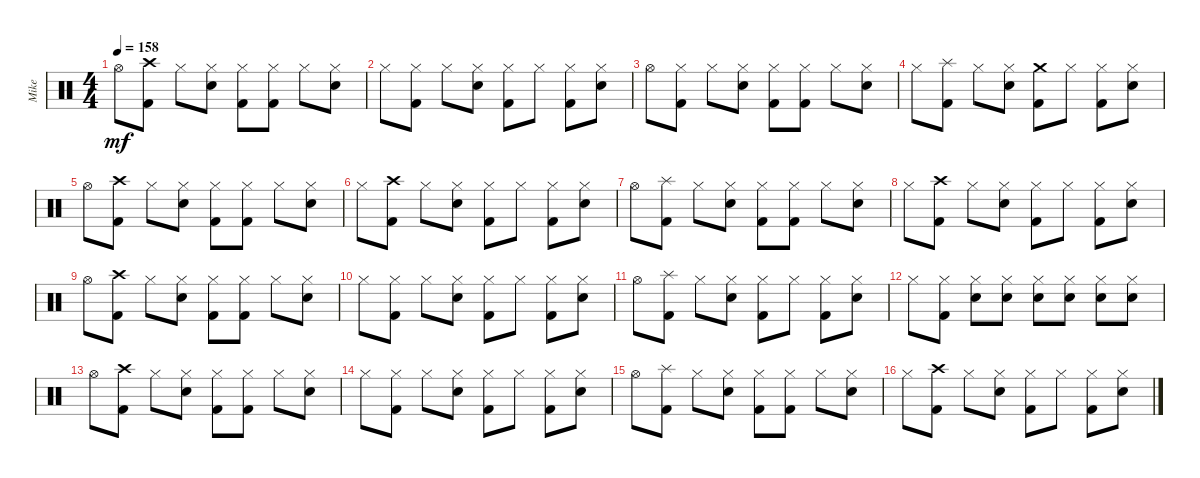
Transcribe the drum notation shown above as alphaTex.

\track ("Mike" "Mike") {instrument percussion}
\staff {score}
\articulation defaults
\ts (4 4)
\tempo 158
\clef neutral
\ks c "Hi-Hat (open)".8{dy mf}
("Crash high (hit)" "Kick (hit) 2").8 "Hi-Hat (closed)".8 ("Hi-Hat (closed)" "Electric Snare (hit)").8 ("Hi-Hat (closed)" "Kick (hit) 2").8 ("Hi-Hat (closed)" "Kick (hit) 2").8 "Hi-Hat (closed)".8 ("Hi-Hat (closed)" "Electric Snare (hit)").8 |
"Hi-Hat (closed)".8 ("Hi-Hat (closed)" "Kick (hit) 2").8 "Hi-Hat (closed)".8 ("Hi-Hat (closed)" "Electric Snare (hit)").8 ("Hi-Hat (closed)" "Kick (hit) 2").8 "Hi-Hat (closed)".8 ("Hi-Hat (closed)" "Kick (hit) 2").8 ("Hi-Hat (closed)" "Electric Snare (hit)").8 |
"Hi-Hat (open)".8 ("Hi-Hat (closed)" "Kick (hit) 2").8 "Hi-Hat (closed)".8 ("Hi-Hat (closed)" "Electric Snare (hit)").8 ("Hi-Hat (closed)" "Kick (hit) 2").8 ("Hi-Hat (closed)" "Kick (hit) 2").8 "Hi-Hat (closed)".8 ("Hi-Hat (closed)" "Electric Snare (hit)").8 |
"Hi-Hat (closed)".8 ("Splash (hit)" "Kick (hit) 2").8 "Hi-Hat (closed)".8 ("Hi-Hat (closed)" "Electric Snare (hit)").8 ("Crash medium (hit)" "Kick (hit) 2").8 "Hi-Hat (closed)".8 ("Hi-Hat (closed)" "Kick (hit) 2").8 ("Hi-Hat (closed)" "Electric Snare (hit)").8 |
"Hi-Hat (open)".8 ("Crash high (hit)" "Kick (hit) 2").8 "Hi-Hat (closed)".8 ("Hi-Hat (closed)" "Electric Snare (hit)").8 ("Hi-Hat (closed)" "Kick (hit) 2").8 ("Hi-Hat (closed)" "Kick (hit) 2").8 "Hi-Hat (closed)".8 ("Hi-Hat (closed)" "Electric Snare (hit)").8 |
"Hi-Hat (closed)".8 ("Crash high (hit)" "Kick (hit) 2").8 "Hi-Hat (closed)".8 ("Hi-Hat (closed)" "Electric Snare (hit)").8 ("Hi-Hat (closed)" "Kick (hit) 2").8 "Hi-Hat (closed)".8 ("Hi-Hat (closed)" "Kick (hit) 2").8 ("Hi-Hat (closed)" "Electric Snare (hit)").8 |
"Hi-Hat (open)".8 ("Splash (hit)" "Kick (hit) 2").8 "Hi-Hat (closed)".8 ("Hi-Hat (closed)" "Electric Snare (hit)").8 ("Hi-Hat (closed)" "Kick (hit) 2").8 ("Hi-Hat (closed)" "Kick (hit) 2").8 "Hi-Hat (closed)".8 ("Hi-Hat (closed)" "Electric Snare (hit)").8 |
"Hi-Hat (closed)".8 ("Crash high (hit)" "Kick (hit) 2").8 "Hi-Hat (closed)".8 ("Hi-Hat (closed)" "Electric Snare (hit)").8 ("Hi-Hat (closed)" "Kick (hit) 2").8 "Hi-Hat (closed)".8 ("Hi-Hat (closed)" "Kick (hit) 2").8 ("Hi-Hat (closed)" "Electric Snare (hit)").8 |
"Hi-Hat (open)".8 ("Crash high (hit)" "Kick (hit) 2").8 "Hi-Hat (closed)".8 ("Hi-Hat (closed)" "Electric Snare (hit)").8 ("Hi-Hat (closed)" "Kick (hit) 2").8 ("Hi-Hat (closed)" "Kick (hit) 2").8 "Hi-Hat (closed)".8 ("Hi-Hat (closed)" "Electric Snare (hit)").8 |
"Hi-Hat (closed)".8 ("Hi-Hat (closed)" "Kick (hit) 2").8 "Hi-Hat (closed)".8 ("Hi-Hat (closed)" "Electric Snare (hit)").8 ("Hi-Hat (closed)" "Kick (hit) 2").8 "Hi-Hat (closed)".8 ("Hi-Hat (closed)" "Kick (hit) 2").8 ("Hi-Hat (closed)" "Electric Snare (hit)").8 |
"Hi-Hat (open)".8 ("Splash (hit)" "Kick (hit) 2").8 "Hi-Hat (closed)".8 ("Hi-Hat (closed)" "Electric Snare (hit)").8 ("Hi-Hat (closed)" "Kick (hit) 2").8 "Hi-Hat (closed)".8 ("Hi-Hat (closed)" "Kick (hit) 2").8 ("Hi-Hat (closed)" "Electric Snare (hit)").8 |
"Hi-Hat (closed)".8 ("Hi-Hat (closed)" "Kick (hit) 2").8 ("Hi-Hat (closed)" "Electric Snare (hit)").8 ("Hi-Hat (closed)" "Electric Snare (hit)").8 ("Hi-Hat (closed)" "Electric Snare (hit)").8 ("Hi-Hat (closed)" "Electric Snare (hit)").8 ("Hi-Hat (closed)" "Electric Snare (hit)").8 ("Hi-Hat (closed)" "Electric Snare (hit)").8 |
"Hi-Hat (open)".8 ("Crash high (hit)" "Kick (hit) 2").8 "Hi-Hat (closed)".8 ("Hi-Hat (closed)" "Electric Snare (hit)").8 ("Hi-Hat (closed)" "Kick (hit) 2").8 ("Hi-Hat (closed)" "Kick (hit) 2").8 "Hi-Hat (closed)".8 ("Hi-Hat (closed)" "Electric Snare (hit)").8 |
"Hi-Hat (closed)".8 ("Hi-Hat (closed)" "Kick (hit) 2").8 "Hi-Hat (closed)".8 ("Hi-Hat (closed)" "Electric Snare (hit)").8 ("Hi-Hat (closed)" "Kick (hit) 2").8 "Hi-Hat (closed)".8 ("Hi-Hat (closed)" "Kick (hit) 2").8 ("Hi-Hat (closed)" "Electric Snare (hit)").8 |
"Hi-Hat (open)".8 ("Splash (hit)" "Kick (hit) 2").8 "Hi-Hat (closed)".8 ("Hi-Hat (closed)" "Electric Snare (hit)").8 ("Hi-Hat (closed)" "Kick (hit) 2").8 ("Hi-Hat (closed)" "Kick (hit) 2").8 "Hi-Hat (closed)".8 ("Hi-Hat (closed)" "Electric Snare (hit)").8 |
"Hi-Hat (closed)".8 ("Crash high (hit)" "Kick (hit) 2").8 "Hi-Hat (closed)".8 ("Hi-Hat (closed)" "Electric Snare (hit)").8 ("Hi-Hat (closed)" "Kick (hit) 2").8 "Hi-Hat (closed)".8 ("Hi-Hat (closed)" "Kick (hit) 2").8 ("Hi-Hat (closed)" "Electric Snare (hit)").8
